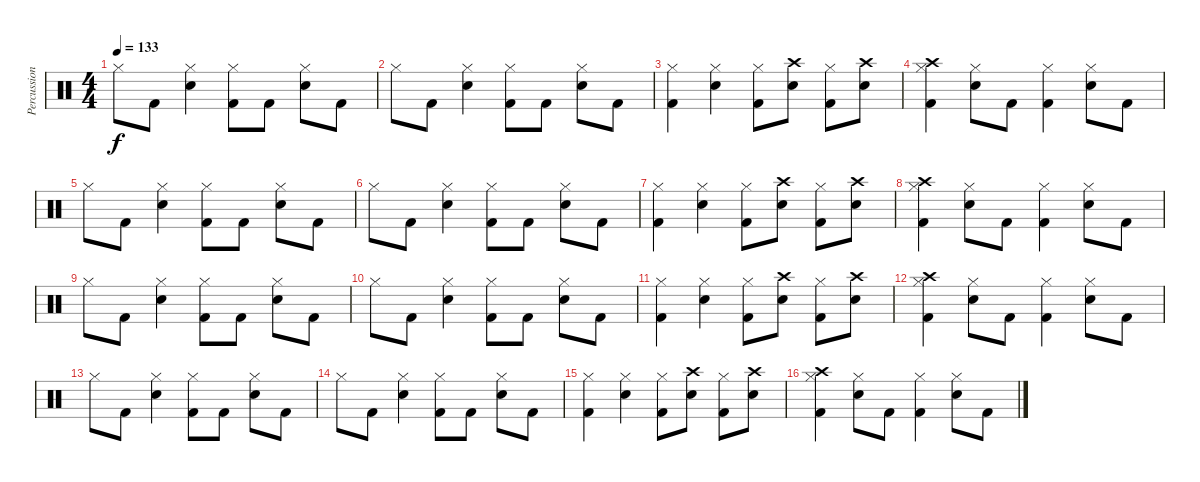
\track ("Percussion" "Percussion") {instrument percussion}
\staff {score}
\articulation defaults
\ts (4 4)
\tempo 133
\clef neutral
\ks c "Hi-Hat (closed)".8{dy f} "Kick (hit) 2".8
("Hi-Hat (closed)" "Electric Snare (hit)").4 ("Hi-Hat (closed)" "Kick (hit) 2").8 "Kick (hit) 2".8 ("Hi-Hat (closed)" "Electric Snare (hit)").8 "Kick (hit) 2".8 |
"Hi-Hat (closed)".8 "Kick (hit) 2".8 ("Hi-Hat (closed)" "Electric Snare (hit)").4 ("Hi-Hat (closed)" "Kick (hit) 2").8 "Kick (hit) 2".8 ("Hi-Hat (closed)" "Electric Snare (hit)").8 "Kick (hit) 2".8 |
("Hi-Hat (closed)" "Kick (hit) 2").4 ("Hi-Hat (closed)" "Electric Snare (hit)").4 ("Hi-Hat (closed)" "Kick (hit) 2").8 ("Crash high (hit)" "Electric Snare (hit)").8 ("Hi-Hat (closed)" "Kick (hit) 2").8 ("Crash high (hit)" "Electric Snare (hit)").8 |
("Hi-Hat (closed)" "Crash high (hit)" "Kick (hit) 2").4 ("Hi-Hat (closed)" "Electric Snare (hit)").8 "Kick (hit) 2".8 ("Hi-Hat (closed)" "Kick (hit) 2").4 ("Hi-Hat (closed)" "Electric Snare (hit)").8 "Kick (hit) 2".8 |
"Hi-Hat (closed)".8 "Kick (hit) 2".8 ("Hi-Hat (closed)" "Electric Snare (hit)").4 ("Hi-Hat (closed)" "Kick (hit) 2").8 "Kick (hit) 2".8 ("Hi-Hat (closed)" "Electric Snare (hit)").8 "Kick (hit) 2".8 |
"Hi-Hat (closed)".8 "Kick (hit) 2".8 ("Hi-Hat (closed)" "Electric Snare (hit)").4 ("Hi-Hat (closed)" "Kick (hit) 2").8 "Kick (hit) 2".8 ("Hi-Hat (closed)" "Electric Snare (hit)").8 "Kick (hit) 2".8 |
("Hi-Hat (closed)" "Kick (hit) 2").4 ("Hi-Hat (closed)" "Electric Snare (hit)").4 ("Hi-Hat (closed)" "Kick (hit) 2").8 ("Crash high (hit)" "Electric Snare (hit)").8 ("Hi-Hat (closed)" "Kick (hit) 2").8 ("Crash high (hit)" "Electric Snare (hit)").8 |
("Hi-Hat (closed)" "Crash high (hit)" "Kick (hit) 2").4 ("Hi-Hat (closed)" "Electric Snare (hit)").8 "Kick (hit) 2".8 ("Hi-Hat (closed)" "Kick (hit) 2").4 ("Hi-Hat (closed)" "Electric Snare (hit)").8 "Kick (hit) 2".8 |
"Hi-Hat (closed)".8 "Kick (hit) 2".8 ("Hi-Hat (closed)" "Electric Snare (hit)").4 ("Hi-Hat (closed)" "Kick (hit) 2").8 "Kick (hit) 2".8 ("Hi-Hat (closed)" "Electric Snare (hit)").8 "Kick (hit) 2".8 |
"Hi-Hat (closed)".8 "Kick (hit) 2".8 ("Hi-Hat (closed)" "Electric Snare (hit)").4 ("Hi-Hat (closed)" "Kick (hit) 2").8 "Kick (hit) 2".8 ("Hi-Hat (closed)" "Electric Snare (hit)").8 "Kick (hit) 2".8 |
("Hi-Hat (closed)" "Kick (hit) 2").4 ("Hi-Hat (closed)" "Electric Snare (hit)").4 ("Hi-Hat (closed)" "Kick (hit) 2").8 ("Crash high (hit)" "Electric Snare (hit)").8 ("Hi-Hat (closed)" "Kick (hit) 2").8 ("Crash high (hit)" "Electric Snare (hit)").8 |
("Hi-Hat (closed)" "Crash high (hit)" "Kick (hit) 2").4 ("Hi-Hat (closed)" "Electric Snare (hit)").8 "Kick (hit) 2".8 ("Hi-Hat (closed)" "Kick (hit) 2").4 ("Hi-Hat (closed)" "Electric Snare (hit)").8 "Kick (hit) 2".8 |
"Hi-Hat (closed)".8 "Kick (hit) 2".8 ("Hi-Hat (closed)" "Electric Snare (hit)").4 ("Hi-Hat (closed)" "Kick (hit) 2").8 "Kick (hit) 2".8 ("Hi-Hat (closed)" "Electric Snare (hit)").8 "Kick (hit) 2".8 |
"Hi-Hat (closed)".8 "Kick (hit) 2".8 ("Hi-Hat (closed)" "Electric Snare (hit)").4 ("Hi-Hat (closed)" "Kick (hit) 2").8 "Kick (hit) 2".8 ("Hi-Hat (closed)" "Electric Snare (hit)").8 "Kick (hit) 2".8 |
("Hi-Hat (closed)" "Kick (hit) 2").4 ("Hi-Hat (closed)" "Electric Snare (hit)").4 ("Hi-Hat (closed)" "Kick (hit) 2").8 ("Crash high (hit)" "Electric Snare (hit)").8 ("Hi-Hat (closed)" "Kick (hit) 2").8 ("Crash high (hit)" "Electric Snare (hit)").8 |
("Hi-Hat (closed)" "Crash high (hit)" "Kick (hit) 2").4 ("Hi-Hat (closed)" "Electric Snare (hit)").8 "Kick (hit) 2".8 ("Hi-Hat (closed)" "Kick (hit) 2").4 ("Hi-Hat (closed)" "Electric Snare (hit)").8 "Kick (hit) 2".8
